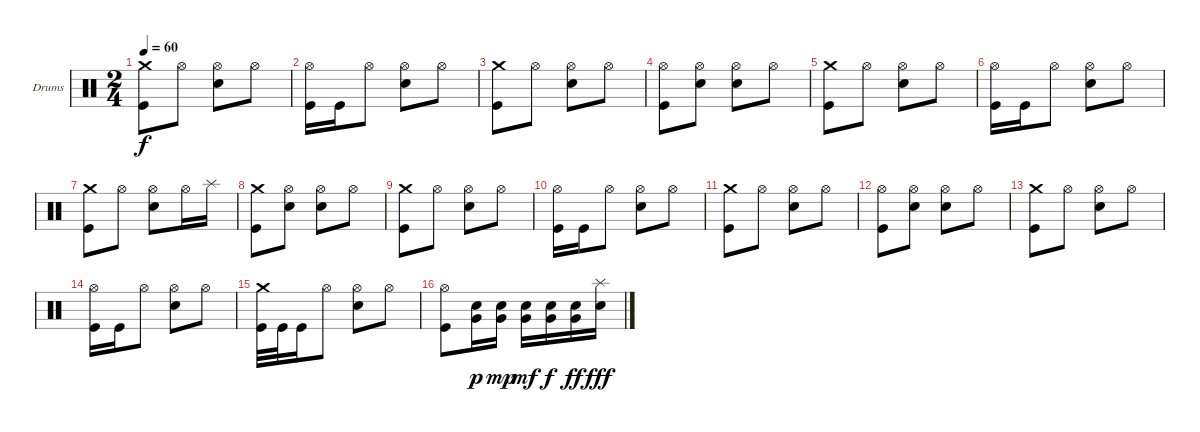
\defaultSystemsLayout 4
\bracketExtendMode groupsimilarinstruments
\firstSystemTrackNameOrientation horizontal
\otherSystemsTrackNameOrientation horizontal
\track ("Drumkit" "Drums") {instrument percussion}
\staff {score}
\articulation defaults
\ts (2 4)
\tempo 60
\clef neutral
\ks aminor
("Crash medium (hit)" "Kick (hit)").8{dy f} "Hi-Hat (open)".8 ("Hi-Hat (open)" "Snare (hit) 2").8 "Hi-Hat (open)".8 |
("Hi-Hat (open)" "Kick (hit)").16 "Kick (hit)".16 "Hi-Hat (open)".8 ("Hi-Hat (open)" "Snare (hit) 2").8 "Hi-Hat (open)".8 |
("Crash medium (hit)" "Kick (hit)").8 "Hi-Hat (open)".8 ("Hi-Hat (open)" "Snare (hit) 2").8 "Hi-Hat (open)".8 |
("Hi-Hat (open)" "Kick (hit)").8 ("Hi-Hat (open)" "Snare (hit) 2").8 ("Hi-Hat (open)" "Snare (hit) 2").8 "Hi-Hat (open)".8 |
("Crash medium (hit)" "Kick (hit)").8 "Hi-Hat (open)".8 ("Hi-Hat (open)" "Snare (hit) 2").8 "Hi-Hat (open)".8 |
("Hi-Hat (open)" "Kick (hit)").16 "Kick (hit)".16 "Hi-Hat (open)".8 ("Hi-Hat (open)" "Snare (hit) 2").8 "Hi-Hat (open)".8 |
("Crash medium (hit)" "Kick (hit)").8 "Hi-Hat (open)".8 ("Hi-Hat (open)" "Snare (hit) 2").8 "Hi-Hat (open)".16 "Splash (hit)".16 |
("Crash medium (hit)" "Kick (hit)").8 ("Hi-Hat (open)" "Snare (hit) 2").8 ("Hi-Hat (open)" "Snare (hit) 2").8 "Hi-Hat (open)".8 |
("Crash medium (hit)" "Kick (hit)").8 "Hi-Hat (open)".8 ("Hi-Hat (open)" "Snare (hit) 2").8 "Hi-Hat (open)".8 |
("Hi-Hat (open)" "Kick (hit)").16 "Kick (hit)".16 "Hi-Hat (open)".8 ("Hi-Hat (open)" "Snare (hit) 2").8 "Hi-Hat (open)".8 |
("Crash medium (hit)" "Kick (hit)").8 "Hi-Hat (open)".8 ("Hi-Hat (open)" "Snare (hit) 2").8 "Hi-Hat (open)".8 |
("Hi-Hat (open)" "Kick (hit)").8 ("Hi-Hat (open)" "Snare (hit) 2").8 ("Hi-Hat (open)" "Snare (hit) 2").8 "Hi-Hat (open)".8 |
("Crash medium (hit)" "Kick (hit)").8 "Hi-Hat (open)".8 ("Hi-Hat (open)" "Snare (hit) 2").8 "Hi-Hat (open)".8 |
("Hi-Hat (open)" "Kick (hit)").16 "Kick (hit)".16 "Hi-Hat (open)".8 ("Hi-Hat (open)" "Snare (hit) 2").8 "Hi-Hat (open)".8 |
("Crash medium (hit)" "Kick (hit)").32 "Kick (hit)".32 "Kick (hit)".16 "Hi-Hat (open)".8 ("Hi-Hat (open)" "Snare (hit) 2").8 "Hi-Hat (open)".8 |
("Hi-Hat (open)" "Kick (hit)").8 ("Snare (hit) 2" "Very Low Tom (hit)").16{dy p} ("Snare (hit) 2" "Very Low Tom (hit)").16{dy mp} ("Snare (hit) 2" "Very Low Tom (hit)").16{dy mf} ("Snare (hit) 2" "Very Low Tom (hit)").16{dy f} ("Snare (hit) 2" "Very Low Tom (hit)").16{dy ff} ("Splash (hit)" "Snare (hit) 2").16{dy fff}
